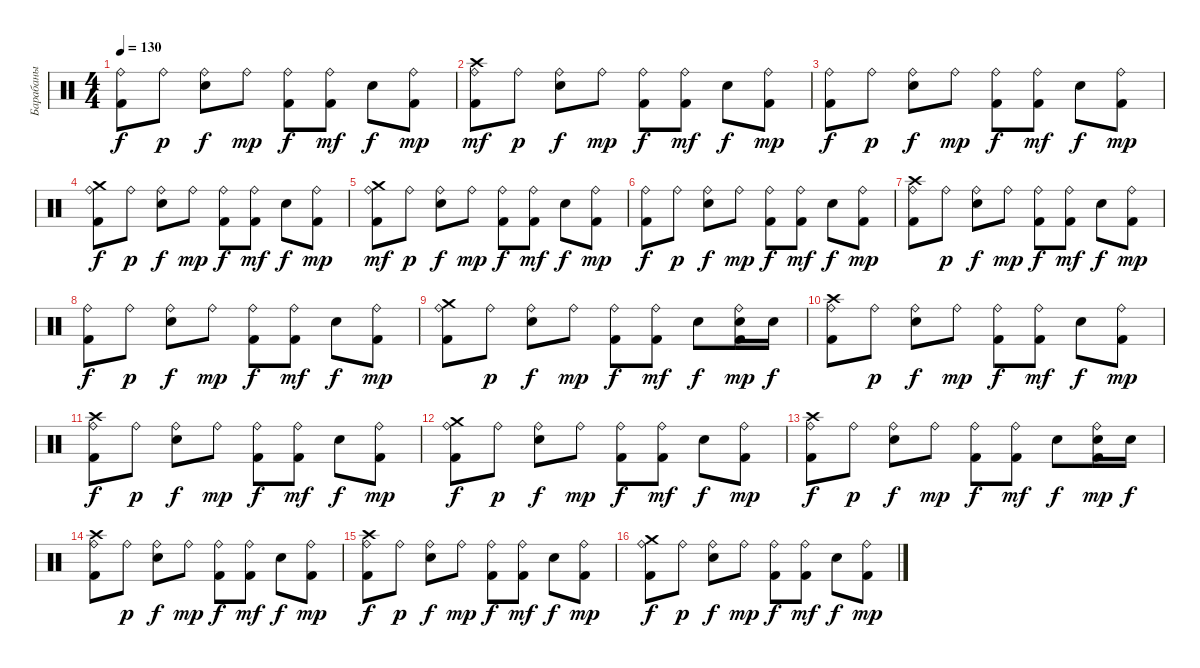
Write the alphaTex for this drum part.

\track ("Барабаны" "Барабаны") {instrument percussion}
\staff {score}
\articulation defaults
\ts (4 4)
\tempo 130
\clef neutral
\ks c
("Ride (bell)" "Kick (hit) 2").8{dy f} "Ride (bell)".8{dy p} ("Ride (bell)" "Snare (hit) 2").8{dy f} "Ride (bell)".8{dy mp} ("Ride (bell)" "Kick (hit) 2").8{dy f} ("Ride (bell)" "Kick (hit) 2").8{dy mf} "Snare (hit) 2".8{dy f} ("Ride (bell)" "Kick (hit) 2").8{dy mp} |
("Crash high (hit)" "Ride (bell)" "Kick (hit) 2").8{dy mf} "Ride (bell)".8{dy p} ("Ride (bell)" "Snare (hit) 2").8{dy f} "Ride (bell)".8{dy mp} ("Ride (bell)" "Kick (hit) 2").8{dy f} ("Ride (bell)" "Kick (hit) 2").8{dy mf} "Snare (hit) 2".8{dy f} ("Ride (bell)" "Kick (hit) 2").8{dy mp} |
("Ride (bell)" "Kick (hit) 2").8{dy f} "Ride (bell)".8{dy p} ("Ride (bell)" "Snare (hit) 2").8{dy f} "Ride (bell)".8{dy mp} ("Ride (bell)" "Kick (hit) 2").8{dy f} ("Ride (bell)" "Kick (hit) 2").8{dy mf} "Snare (hit) 2".8{dy f} ("Ride (bell)" "Kick (hit) 2").8{dy mp} |
("Crash medium (hit)" "Ride (bell)" "Kick (hit) 2").8{dy f} "Ride (bell)".8{dy p} ("Ride (bell)" "Snare (hit) 2").8{dy f} "Ride (bell)".8{dy mp} ("Ride (bell)" "Kick (hit) 2").8{dy f} ("Ride (bell)" "Kick (hit) 2").8{dy mf} "Snare (hit) 2".8{dy f} ("Ride (bell)" "Kick (hit) 2").8{dy mp} |
("Crash medium (hit)" "Ride (bell)" "Kick (hit) 2").8{dy mf} "Ride (bell)".8{dy p} ("Ride (bell)" "Snare (hit) 2").8{dy f} "Ride (bell)".8{dy mp} ("Ride (bell)" "Kick (hit) 2").8{dy f} ("Ride (bell)" "Kick (hit) 2").8{dy mf} "Snare (hit) 2".8{dy f} ("Ride (bell)" "Kick (hit) 2").8{dy mp} |
("Ride (bell)" "Kick (hit) 2").8{dy f} "Ride (bell)".8{dy p} ("Ride (bell)" "Snare (hit) 2").8{dy f} "Ride (bell)".8{dy mp} ("Ride (bell)" "Kick (hit) 2").8{dy f} ("Ride (bell)" "Kick (hit) 2").8{dy mf} "Snare (hit) 2".8{dy f} ("Ride (bell)" "Kick (hit) 2").8{dy mp} |
("Crash high (hit)" "Ride (bell)" "Kick (hit) 2").8 "Ride (bell)".8{dy p} ("Ride (bell)" "Snare (hit) 2").8{dy f} "Ride (bell)".8{dy mp} ("Ride (bell)" "Kick (hit) 2").8{dy f} ("Ride (bell)" "Kick (hit) 2").8{dy mf} "Snare (hit) 2".8{dy f} ("Ride (bell)" "Kick (hit) 2").8{dy mp} |
("Ride (bell)" "Kick (hit) 2").8{dy f} "Ride (bell)".8{dy p} ("Ride (bell)" "Snare (hit) 2").8{dy f} "Ride (bell)".8{dy mp} ("Ride (bell)" "Kick (hit) 2").8{dy f} ("Ride (bell)" "Kick (hit) 2").8{dy mf} "Snare (hit) 2".8{dy f} ("Ride (bell)" "Kick (hit) 2").8{dy mp} |
("Crash medium (hit)" "Ride (bell)" "Kick (hit) 2").8 "Ride (bell)".8{dy p} ("Ride (bell)" "Snare (hit) 2").8{dy f} "Ride (bell)".8{dy mp} ("Ride (bell)" "Kick (hit) 2").8{dy f} ("Ride (bell)" "Kick (hit) 2").8{dy mf} "Snare (hit) 2".8{dy f} ("Snare (hit) 2" "Ride (bell)" "Kick (hit) 2").16{dy mp} "Snare (hit) 2".16{dy f} |
("Crash high (hit)" "Ride (bell)" "Kick (hit) 2").8 "Ride (bell)".8{dy p} ("Ride (bell)" "Snare (hit) 2").8{dy f} "Ride (bell)".8{dy mp} ("Ride (bell)" "Kick (hit) 2").8{dy f} ("Ride (bell)" "Kick (hit) 2").8{dy mf} "Snare (hit) 2".8{dy f} ("Ride (bell)" "Kick (hit) 2").8{dy mp} |
("Crash high (hit)" "Ride (bell)" "Kick (hit) 2").8{dy f} "Ride (bell)".8{dy p} ("Ride (bell)" "Snare (hit) 2").8{dy f} "Ride (bell)".8{dy mp} ("Ride (bell)" "Kick (hit) 2").8{dy f} ("Ride (bell)" "Kick (hit) 2").8{dy mf} "Snare (hit) 2".8{dy f} ("Ride (bell)" "Kick (hit) 2").8{dy mp} |
("Crash medium (hit)" "Ride (bell)" "Kick (hit) 2").8{dy f} "Ride (bell)".8{dy p} ("Ride (bell)" "Snare (hit) 2").8{dy f} "Ride (bell)".8{dy mp} ("Ride (bell)" "Kick (hit) 2").8{dy f} ("Ride (bell)" "Kick (hit) 2").8{dy mf} "Snare (hit) 2".8{dy f} ("Ride (bell)" "Kick (hit) 2").8{dy mp} |
("Crash high (hit)" "Ride (bell)" "Kick (hit) 2").8{dy f} "Ride (bell)".8{dy p} ("Ride (bell)" "Snare (hit) 2").8{dy f} "Ride (bell)".8{dy mp} ("Ride (bell)" "Kick (hit) 2").8{dy f} ("Ride (bell)" "Kick (hit) 2").8{dy mf} "Snare (hit) 2".8{dy f} ("Snare (hit) 2" "Ride (bell)" "Kick (hit) 2").16{dy mp} "Snare (hit) 2".16{dy f} |
("Crash high (hit)" "Ride (bell)" "Kick (hit) 2").8 "Ride (bell)".8{dy p} ("Ride (bell)" "Snare (hit) 2").8{dy f} "Ride (bell)".8{dy mp} ("Ride (bell)" "Kick (hit) 2").8{dy f} ("Ride (bell)" "Kick (hit) 2").8{dy mf} "Snare (hit) 2".8{dy f} ("Ride (bell)" "Kick (hit) 2").8{dy mp} |
("Crash high (hit)" "Ride (bell)" "Kick (hit) 2").8{dy f} "Ride (bell)".8{dy p} ("Ride (bell)" "Snare (hit) 2").8{dy f} "Ride (bell)".8{dy mp} ("Ride (bell)" "Kick (hit) 2").8{dy f} ("Ride (bell)" "Kick (hit) 2").8{dy mf} "Snare (hit) 2".8{dy f} ("Ride (bell)" "Kick (hit) 2").8{dy mp} |
("Crash medium (hit)" "Ride (bell)" "Kick (hit) 2").8{dy f} "Ride (bell)".8{dy p} ("Ride (bell)" "Snare (hit) 2").8{dy f} "Ride (bell)".8{dy mp} ("Ride (bell)" "Kick (hit) 2").8{dy f} ("Ride (bell)" "Kick (hit) 2").8{dy mf} "Snare (hit) 2".8{dy f} ("Ride (bell)" "Kick (hit) 2").8{dy mp}
